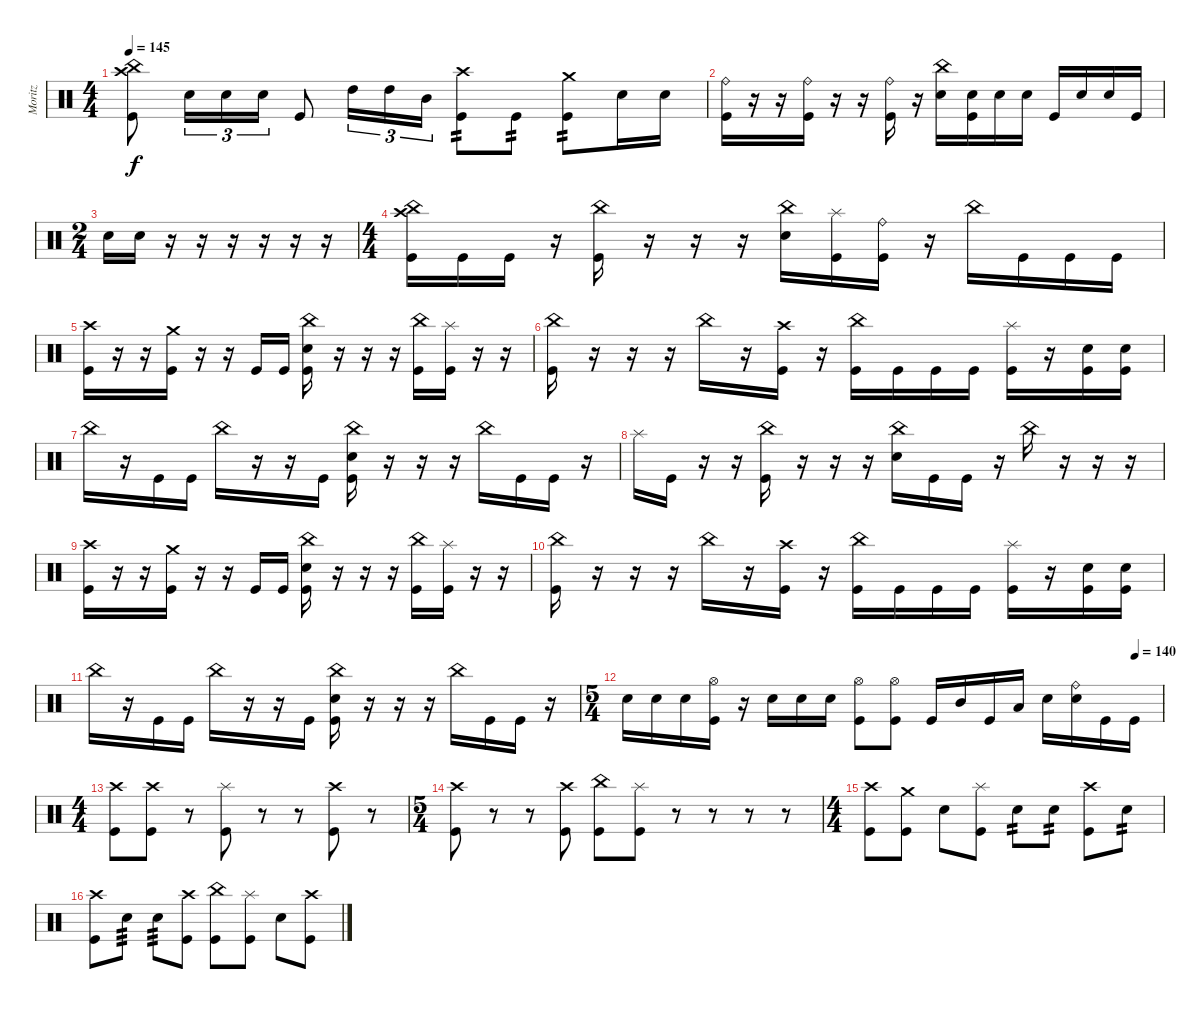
\track ("Moritz" "Moritz") {instrument percussion}
\staff {score}
\articulation defaults
\ts (4 4)
\tempo 145
\clef neutral
\ks c
("Crash high (hit)" "China (hit)" "Kick (hit)").8{dy f} "Snare (hit) 2".16{tu (3 2)} "Snare (hit) 2".16{tu (3 2)} "Snare (hit) 2".16{tu (3 2)} "Kick (hit)".8 "High Tom (hit)".16{tu (3 2)} "High Tom (hit)".16{tu (3 2)} "Mid Tom (hit)".16{tu (3 2)} ("Crash high (hit)" "Kick (hit)").8{tp 2} "Kick (hit)".8{tp 2} ("Crash medium (hit)" "Kick (hit)").8{tp 2} "Snare (hit) 2".16 "Snare (hit) 2".16 |
("Ride (bell)" "Kick (hit)").16 r.16 r.16 ("Ride (bell)" "Kick (hit)").16 r.16 r.16 ("Ride (bell)" "Kick (hit)").16 r.16 ("China (hit)" "Snare (hit) 2").16 ("Snare (hit) 2" "Kick (hit)").16 "Snare (hit) 2".16 "Snare (hit) 2".16 "Kick (hit)".16 "Snare (hit) 2".16 "Snare (hit) 2".16 "Kick (hit)".16 |
\ts (2 4)
"Snare (hit) 2".16 "Snare (hit) 2".16 r.16 r.16 r.16 r.16 r.16 r.16 |
\ts (4 4)
("Crash high (hit)" "China (hit)" "Kick (hit)").16 "Kick (hit)".16 "Kick (hit)".16 r.16 ("China (hit)" "Kick (hit)").16 r.16 r.16 r.16 ("China (hit)" "Snare (hit) 2").16 ("Splash (hit)" "Kick (hit)").16 ("Ride (bell)" "Kick (hit)").16 r.16 "China (hit)".16 "Kick (hit)".16 "Kick (hit)".16 "Kick (hit)".16 |
("Crash high (hit)" "Kick (hit)").16 r.16 r.16 ("Crash medium (hit)" "Kick (hit)").16 r.16 r.16 "Kick (hit)".16 "Kick (hit)".16 ("China (hit)" "Snare (hit) 2" "Kick (hit)").16 r.16 r.16 r.16 ("China (hit)" "Kick (hit)").16 ("Splash (hit)" "Kick (hit)").16 r.16 r.16 |
("China (hit)" "Kick (hit)").16 r.16 r.16 r.16 "China (hit)".16 r.16 ("Crash high (hit)" "Kick (hit)").16 r.16 ("China (hit)" "Kick (hit)").16 "Kick (hit)".16 "Kick (hit)".16 "Kick (hit)".16 ("Splash (hit)" "Kick (hit)").16 r.16 ("Snare (hit) 2" "Kick (hit)").16 ("Snare (hit) 2" "Kick (hit)").16 |
"China (hit)".16 r.16 "Kick (hit)".16 "Kick (hit)".16 "China (hit)".16 r.16 r.16 "Kick (hit)".16 ("China (hit)" "Snare (hit) 2" "Kick (hit)").16 r.16 r.16 r.16 "China (hit)".16 "Kick (hit)".16 "Kick (hit)".16 r.16 |
"Splash (hit)".16 "Kick (hit)".16 r.16 r.16 ("China (hit)" "Kick (hit)").16 r.16 r.16 r.16 ("China (hit)" "Snare (hit) 2").16 "Kick (hit)".16 "Kick (hit)".16 r.16 "China (hit)".16 r.16 r.16 r.16 |
("Crash high (hit)" "Kick (hit)").16 r.16 r.16 ("Crash medium (hit)" "Kick (hit)").16 r.16 r.16 "Kick (hit)".16 "Kick (hit)".16 ("China (hit)" "Snare (hit) 2" "Kick (hit)").16 r.16 r.16 r.16 ("China (hit)" "Kick (hit)").16 ("Splash (hit)" "Kick (hit)").16 r.16 r.16 |
("China (hit)" "Kick (hit)").16 r.16 r.16 r.16 "China (hit)".16 r.16 ("Crash high (hit)" "Kick (hit)").16 r.16 ("China (hit)" "Kick (hit)").16 "Kick (hit)".16 "Kick (hit)".16 "Kick (hit)".16 ("Splash (hit)" "Kick (hit)").16 r.16 ("Snare (hit) 2" "Kick (hit)").16 ("Snare (hit) 2" "Kick (hit)").16 |
"China (hit)".16 r.16 "Kick (hit)".16 "Kick (hit)".16 "China (hit)".16 r.16 r.16 "Kick (hit)".16 ("China (hit)" "Snare (hit) 2" "Kick (hit)").16 r.16 r.16 r.16 "China (hit)".16 "Kick (hit)".16 "Kick (hit)".16 r.16 |
\ts (5 4)
\tempo (140 0.95)
"Snare (hit) 2".16 "Snare (hit) 2".16 "Snare (hit) 2".16 ("Hi-Hat (open)" "Kick (hit)").16 r.16 "Snare (hit) 2".16 "Snare (hit) 2".16 "Snare (hit) 2".16 ("Hi-Hat (open)" "Kick (hit)").8 ("Hi-Hat (open)" "Kick (hit)").8 "Kick (hit)".16 "Mid Tom (hit)".16 "Kick (hit)".16 "Low Tom (hit)".16 "Snare (hit) 2".16 ("Ride (bell)" "Snare (hit) 2").16 "Kick (hit)".16 "Kick (hit)".16 |
\ts (4 4)
("Crash high (hit)" "Kick (hit)").8 ("Crash high (hit)" "Kick (hit)").8 r.8 ("Splash (hit)" "Kick (hit)").8 r.8 r.8 ("Crash high (hit)" "Kick (hit)").8 r.8 |
\ts (5 4)
("Crash high (hit)" "Kick (hit)").8 r.8 r.8 ("Crash high (hit)" "Kick (hit)").8 ("China (hit)" "Kick (hit)").8 ("Splash (hit)" "Kick (hit)").8 r.8 r.8 r.8 r.8 |
\ts (4 4)
("Crash high (hit)" "Kick (hit)").8 ("Crash medium (hit)" "Kick (hit)").8 "Snare (hit) 2".8 ("Splash (hit)" "Kick (hit)").8 "Snare (hit) 2".8{tp 2} "Snare (hit) 2".8{tp 2} ("Crash high (hit)" "Kick (hit)").8 "Snare (hit) 2".8{tp 2} |
("Crash high (hit)" "Kick (hit)").8 "Snare (hit) 2".8{tp 3} "Snare (hit) 2".8{tp 3} ("Crash high (hit)" "Kick (hit)").8 ("China (hit)" "Kick (hit)").8 ("Splash (hit)" "Kick (hit)").8 "Snare (hit) 2".8 ("Crash high (hit)" "Kick (hit)").8
